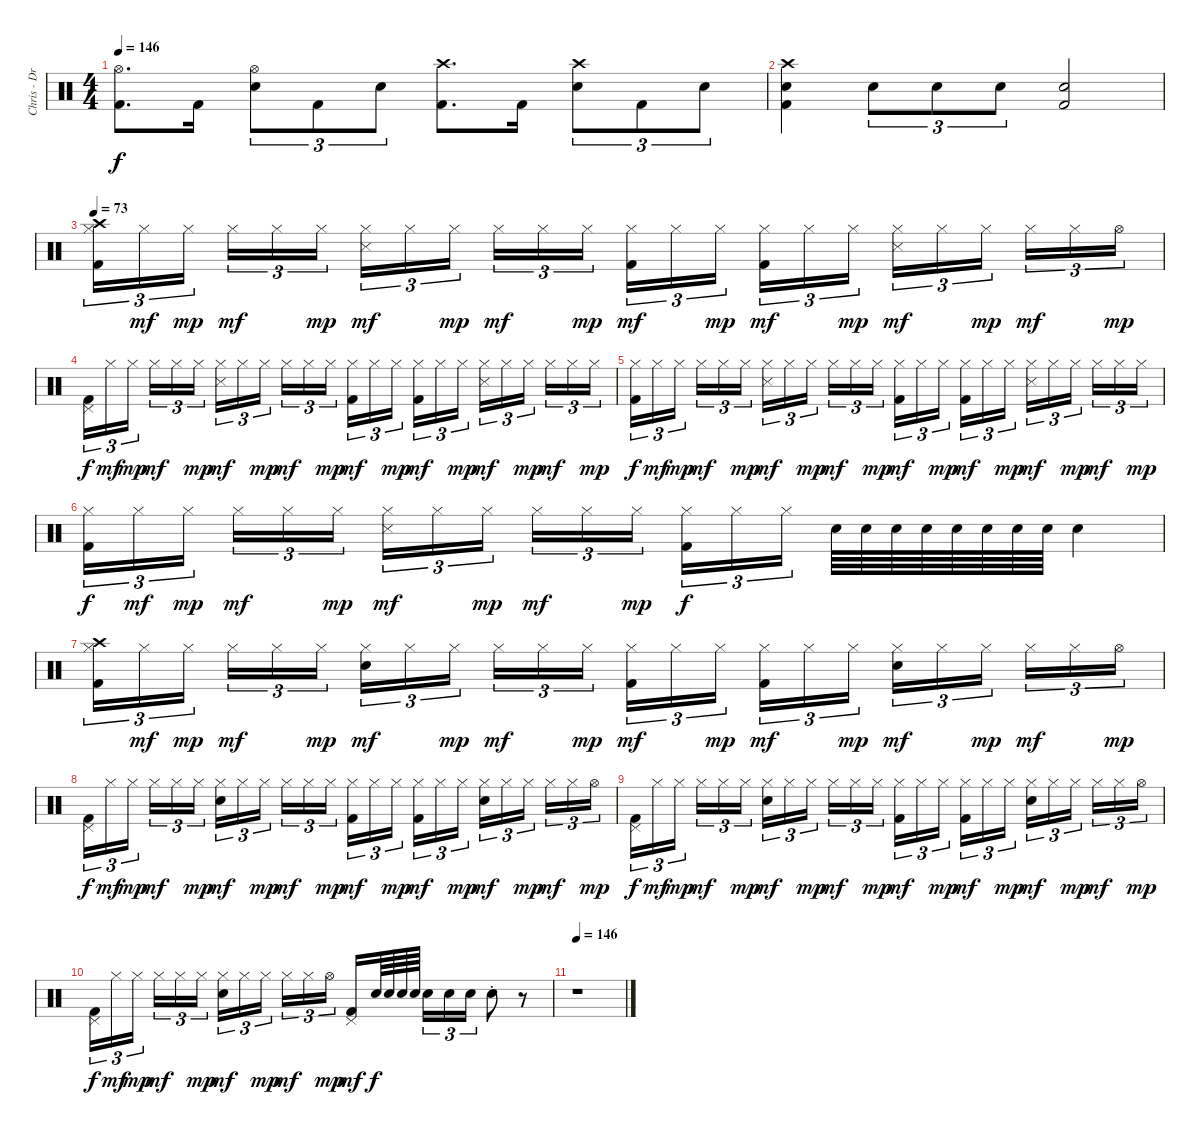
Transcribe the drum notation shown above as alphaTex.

\track ("Chris - Drums" "Chris - Dr") {instrument percussion}
\staff {score}
\articulation defaults
\ts (4 4)
\tempo 146
\clef neutral
\ks c
("Hi-Hat (open)" "Kick (hit) 2").8{d dy f} "Kick (hit) 2".16 ("Hi-Hat (open)" "Electric Snare (hit)").8{tu (3 2)} "Kick (hit) 2".8{tu (3 2)} "Electric Snare (hit)".8{tu (3 2)} ("Crash high (hit)" "Kick (hit) 2").8{d} "Kick (hit) 2".16 ("Crash high (hit)" "Electric Snare (hit)").8{tu (3 2)} "Kick (hit) 2".8{tu (3 2)} "Electric Snare (hit)".8{tu (3 2)} |
("Crash high (hit)" "Electric Snare (hit)" "Kick (hit) 2").4 "Electric Snare (hit)".8{tu (3 2)} "Electric Snare (hit)".8{tu (3 2)} "Electric Snare (hit)".8{tu (3 2)} ("Electric Snare (hit)" "Kick (hit) 2").2 |
\tempo 73
("Crash high (hit)" "Hi-Hat (closed)" "Kick (hit) 2").16{tu (3 2)} "Hi-Hat (closed)".16{tu (3 2) dy mf} "Hi-Hat (closed)".16{tu (3 2) dy mp beam splitsecondary} "Hi-Hat (closed)".16{tu (3 2) dy mf} "Hi-Hat (closed)".16{tu (3 2)} "Hi-Hat (closed)".16{tu (3 2) dy mp} ("Hi-Hat (closed)" "Snare (side stick) 3").16{tu (3 2) dy mf} "Hi-Hat (closed)".16{tu (3 2)} "Hi-Hat (closed)".16{tu (3 2) dy mp beam splitsecondary} "Hi-Hat (closed)".16{tu (3 2) dy mf} "Hi-Hat (closed)".16{tu (3 2)} "Hi-Hat (closed)".16{tu (3 2) dy mp} ("Hi-Hat (closed)" "Kick (hit) 2").16{tu (3 2) dy mf} "Hi-Hat (closed)".16{tu (3 2)} "Hi-Hat (closed)".16{tu (3 2) dy mp beam splitsecondary} ("Hi-Hat (closed)" "Kick (hit) 2").16{tu (3 2) dy mf} "Hi-Hat (closed)".16{tu (3 2)} "Hi-Hat (closed)".16{tu (3 2) dy mp} ("Hi-Hat (closed)" "Snare (side stick) 3").16{tu (3 2) dy mf} "Hi-Hat (closed)".16{tu (3 2)} "Hi-Hat (closed)".16{tu (3 2) dy mp beam splitsecondary} "Hi-Hat (closed)".16{tu (3 2) dy mf} "Hi-Hat (closed)".16{tu (3 2)} "Hi-Hat (open)".16{tu (3 2) dy mp} |
("Pedal Hi-Hat (hit)" "Kick (hit) 2").16{tu (3 2) dy f} "Hi-Hat (closed)".16{tu (3 2) dy mf} "Hi-Hat (closed)".16{tu (3 2) dy mp beam splitsecondary} "Hi-Hat (closed)".16{tu (3 2) dy mf} "Hi-Hat (closed)".16{tu (3 2)} "Hi-Hat (closed)".16{tu (3 2) dy mp} ("Hi-Hat (closed)" "Snare (side stick) 3").16{tu (3 2) dy mf} "Hi-Hat (closed)".16{tu (3 2)} "Hi-Hat (closed)".16{tu (3 2) dy mp beam splitsecondary} "Hi-Hat (closed)".16{tu (3 2) dy mf} "Hi-Hat (closed)".16{tu (3 2)} "Hi-Hat (closed)".16{tu (3 2) dy mp} ("Hi-Hat (closed)" "Kick (hit) 2").16{tu (3 2) dy mf} "Hi-Hat (closed)".16{tu (3 2)} "Hi-Hat (closed)".16{tu (3 2) dy mp beam splitsecondary} ("Hi-Hat (closed)" "Kick (hit) 2").16{tu (3 2) dy mf} "Hi-Hat (closed)".16{tu (3 2)} "Hi-Hat (closed)".16{tu (3 2) dy mp} ("Hi-Hat (closed)" "Snare (side stick) 3").16{tu (3 2) dy mf} "Hi-Hat (closed)".16{tu (3 2)} "Hi-Hat (closed)".16{tu (3 2) dy mp beam splitsecondary} "Hi-Hat (closed)".16{tu (3 2) dy mf} "Hi-Hat (closed)".16{tu (3 2)} "Hi-Hat (closed)".16{tu (3 2) dy mp} |
("Hi-Hat (closed)" "Kick (hit) 2").16{tu (3 2) dy f} "Hi-Hat (closed)".16{tu (3 2) dy mf} "Hi-Hat (closed)".16{tu (3 2) dy mp beam splitsecondary} "Hi-Hat (closed)".16{tu (3 2) dy mf} "Hi-Hat (closed)".16{tu (3 2)} "Hi-Hat (closed)".16{tu (3 2) dy mp} ("Hi-Hat (closed)" "Snare (side stick) 3").16{tu (3 2) dy mf} "Hi-Hat (closed)".16{tu (3 2)} "Hi-Hat (closed)".16{tu (3 2) dy mp beam splitsecondary} "Hi-Hat (closed)".16{tu (3 2) dy mf} "Hi-Hat (closed)".16{tu (3 2)} "Hi-Hat (closed)".16{tu (3 2) dy mp} ("Hi-Hat (closed)" "Kick (hit) 2").16{tu (3 2) dy mf} "Hi-Hat (closed)".16{tu (3 2)} "Hi-Hat (closed)".16{tu (3 2) dy mp beam splitsecondary} ("Hi-Hat (closed)" "Kick (hit) 2").16{tu (3 2) dy mf} "Hi-Hat (closed)".16{tu (3 2)} "Hi-Hat (closed)".16{tu (3 2) dy mp} ("Hi-Hat (closed)" "Snare (side stick) 3").16{tu (3 2) dy mf} "Hi-Hat (closed)".16{tu (3 2)} "Hi-Hat (closed)".16{tu (3 2) dy mp beam splitsecondary} "Hi-Hat (closed)".16{tu (3 2) dy mf} "Hi-Hat (closed)".16{tu (3 2)} "Hi-Hat (closed)".16{tu (3 2) dy mp} |
("Hi-Hat (closed)" "Kick (hit) 2").16{tu (3 2) dy f} "Hi-Hat (closed)".16{tu (3 2) dy mf} "Hi-Hat (closed)".16{tu (3 2) dy mp beam splitsecondary} "Hi-Hat (closed)".16{tu (3 2) dy mf} "Hi-Hat (closed)".16{tu (3 2)} "Hi-Hat (closed)".16{tu (3 2) dy mp} ("Hi-Hat (closed)" "Snare (side stick) 3").16{tu (3 2) dy mf} "Hi-Hat (closed)".16{tu (3 2)} "Hi-Hat (closed)".16{tu (3 2) dy mp beam splitsecondary} "Hi-Hat (closed)".16{tu (3 2) dy mf} "Hi-Hat (closed)".16{tu (3 2)} "Hi-Hat (closed)".16{tu (3 2) dy mp} ("Hi-Hat (closed)" "Kick (hit) 2").16{tu (3 2) dy f} "Hi-Hat (closed)".16{tu (3 2)} "Hi-Hat (closed)".16{tu (3 2) beam splitsecondary} "Electric Snare (hit)".64 "Electric Snare (hit)".64 "Electric Snare (hit)".64 "Electric Snare (hit)".64 "Electric Snare (hit)".64 "Electric Snare (hit)".64 "Electric Snare (hit)".64 "Electric Snare (hit)".64 "Electric Snare (hit)".4 |
("Crash high (hit)" "Hi-Hat (closed)" "Kick (hit) 2").16{tu (3 2)} "Hi-Hat (closed)".16{tu (3 2) dy mf} "Hi-Hat (closed)".16{tu (3 2) dy mp beam splitsecondary} "Hi-Hat (closed)".16{tu (3 2) dy mf} "Hi-Hat (closed)".16{tu (3 2)} "Hi-Hat (closed)".16{tu (3 2) dy mp} ("Hi-Hat (closed)" "Electric Snare (hit)").16{tu (3 2) dy mf} "Hi-Hat (closed)".16{tu (3 2)} "Hi-Hat (closed)".16{tu (3 2) dy mp beam splitsecondary} "Hi-Hat (closed)".16{tu (3 2) dy mf} "Hi-Hat (closed)".16{tu (3 2)} "Hi-Hat (closed)".16{tu (3 2) dy mp} ("Hi-Hat (closed)" "Kick (hit) 2").16{tu (3 2) dy mf} "Hi-Hat (closed)".16{tu (3 2)} "Hi-Hat (closed)".16{tu (3 2) dy mp beam splitsecondary} ("Hi-Hat (closed)" "Kick (hit) 2").16{tu (3 2) dy mf} "Hi-Hat (closed)".16{tu (3 2)} "Hi-Hat (closed)".16{tu (3 2) dy mp} ("Hi-Hat (closed)" "Electric Snare (hit)").16{tu (3 2) dy mf} "Hi-Hat (closed)".16{tu (3 2)} "Hi-Hat (closed)".16{tu (3 2) dy mp beam splitsecondary} "Hi-Hat (closed)".16{tu (3 2) dy mf} "Hi-Hat (closed)".16{tu (3 2)} "Hi-Hat (open)".16{tu (3 2) dy mp} |
("Pedal Hi-Hat (hit)" "Kick (hit) 2").16{tu (3 2) dy f} "Hi-Hat (closed)".16{tu (3 2) dy mf} "Hi-Hat (closed)".16{tu (3 2) dy mp beam splitsecondary} "Hi-Hat (closed)".16{tu (3 2) dy mf} "Hi-Hat (closed)".16{tu (3 2)} "Hi-Hat (closed)".16{tu (3 2) dy mp} ("Hi-Hat (closed)" "Electric Snare (hit)").16{tu (3 2) dy mf} "Hi-Hat (closed)".16{tu (3 2)} "Hi-Hat (closed)".16{tu (3 2) dy mp beam splitsecondary} "Hi-Hat (closed)".16{tu (3 2) dy mf} "Hi-Hat (closed)".16{tu (3 2)} "Hi-Hat (closed)".16{tu (3 2) dy mp} ("Hi-Hat (closed)" "Kick (hit) 2").16{tu (3 2) dy mf} "Hi-Hat (closed)".16{tu (3 2)} "Hi-Hat (closed)".16{tu (3 2) dy mp beam splitsecondary} ("Hi-Hat (closed)" "Kick (hit) 2").16{tu (3 2) dy mf} "Hi-Hat (closed)".16{tu (3 2)} "Hi-Hat (closed)".16{tu (3 2) dy mp} ("Hi-Hat (closed)" "Electric Snare (hit)").16{tu (3 2) dy mf} "Hi-Hat (closed)".16{tu (3 2)} "Hi-Hat (closed)".16{tu (3 2) dy mp beam splitsecondary} "Hi-Hat (closed)".16{tu (3 2) dy mf} "Hi-Hat (closed)".16{tu (3 2)} "Hi-Hat (open)".16{tu (3 2) dy mp} |
("Pedal Hi-Hat (hit)" "Kick (hit) 2").16{tu (3 2) dy f} "Hi-Hat (closed)".16{tu (3 2) dy mf} "Hi-Hat (closed)".16{tu (3 2) dy mp beam splitsecondary} "Hi-Hat (closed)".16{tu (3 2) dy mf} "Hi-Hat (closed)".16{tu (3 2)} "Hi-Hat (closed)".16{tu (3 2) dy mp} ("Hi-Hat (closed)" "Electric Snare (hit)").16{tu (3 2) dy mf} "Hi-Hat (closed)".16{tu (3 2)} "Hi-Hat (closed)".16{tu (3 2) dy mp beam splitsecondary} "Hi-Hat (closed)".16{tu (3 2) dy mf} "Hi-Hat (closed)".16{tu (3 2)} "Hi-Hat (closed)".16{tu (3 2) dy mp} ("Hi-Hat (closed)" "Kick (hit) 2").16{tu (3 2) dy mf} "Hi-Hat (closed)".16{tu (3 2)} "Hi-Hat (closed)".16{tu (3 2) dy mp beam splitsecondary} ("Hi-Hat (closed)" "Kick (hit) 2").16{tu (3 2) dy mf} "Hi-Hat (closed)".16{tu (3 2)} "Hi-Hat (closed)".16{tu (3 2) dy mp} ("Hi-Hat (closed)" "Electric Snare (hit)").16{tu (3 2) dy mf} "Hi-Hat (closed)".16{tu (3 2)} "Hi-Hat (closed)".16{tu (3 2) dy mp beam splitsecondary} "Hi-Hat (closed)".16{tu (3 2) dy mf} "Hi-Hat (closed)".16{tu (3 2)} "Hi-Hat (open)".16{tu (3 2) dy mp} |
("Pedal Hi-Hat (hit)" "Kick (hit) 2").16{tu (3 2) dy f} "Hi-Hat (closed)".16{tu (3 2) dy mf} "Hi-Hat (closed)".16{tu (3 2) dy mp beam splitsecondary} "Hi-Hat (closed)".16{tu (3 2) dy mf} "Hi-Hat (closed)".16{tu (3 2)} "Hi-Hat (closed)".16{tu (3 2) dy mp} ("Hi-Hat (closed)" "Electric Snare (hit)").16{tu (3 2) dy mf} "Hi-Hat (closed)".16{tu (3 2)} "Hi-Hat (closed)".16{tu (3 2) dy mp beam splitsecondary} "Hi-Hat (closed)".16{tu (3 2) dy mf} "Hi-Hat (closed)".16{tu (3 2)} "Hi-Hat (open)".16{tu (3 2) dy mp} ("Pedal Hi-Hat (hit)" "Kick (hit) 2").16{dy mf} "Electric Snare (hit)".64{dy f} "Electric Snare (hit)".64 "Electric Snare (hit)".64 "Electric Snare (hit)".64{beam splitsecondary} "Electric Snare (hit)".16{tu (3 2)} "Electric Snare (hit)".16{tu (3 2)} "Electric Snare (hit)".16{tu (3 2)} "Electric Snare (hit)"{st}.8 r.8 |
\tempo 146
r.1
